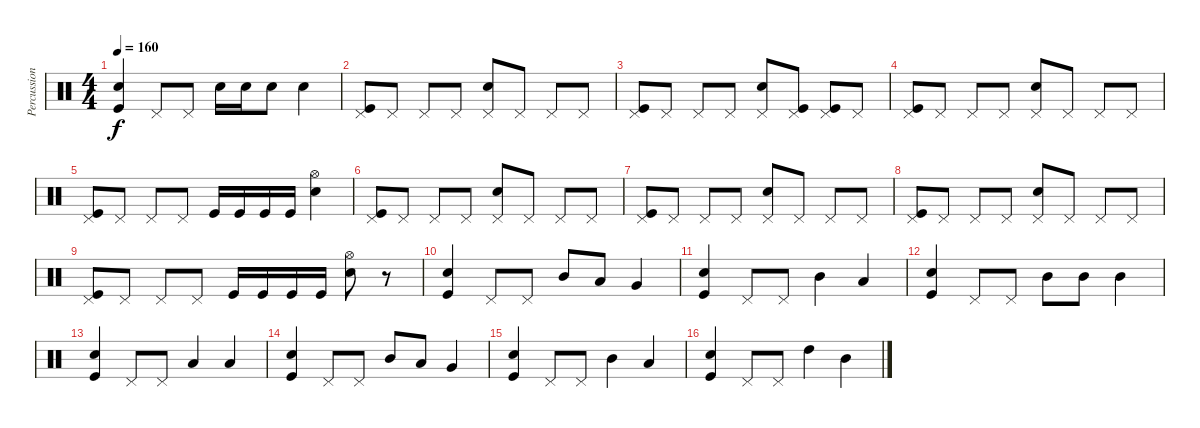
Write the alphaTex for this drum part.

\track ("Percussion" "Percussion") {instrument percussion}
\staff {score}
\articulation defaults
\ts (4 4)
\tempo 160
\clef neutral
\ks c
("Electric Snare (hit)" "Kick (hit)").4{dy f} "Pedal Hi-Hat (hit)".8 "Pedal Hi-Hat (hit)".8 "Electric Snare (hit)".16 "Electric Snare (hit)".16 "Electric Snare (hit)".8 "Electric Snare (hit)".4 |
("Pedal Hi-Hat (hit)" "Kick (hit)").8{volume 9} "Pedal Hi-Hat (hit)".8 "Pedal Hi-Hat (hit)".8 "Pedal Hi-Hat (hit)".8 ("Pedal Hi-Hat (hit)" "Electric Snare (hit)").8 "Pedal Hi-Hat (hit)".8 "Pedal Hi-Hat (hit)".8 "Pedal Hi-Hat (hit)".8 |
("Pedal Hi-Hat (hit)" "Kick (hit)").8 "Pedal Hi-Hat (hit)".8 "Pedal Hi-Hat (hit)".8 "Pedal Hi-Hat (hit)".8 ("Pedal Hi-Hat (hit)" "Electric Snare (hit)").8 ("Pedal Hi-Hat (hit)" "Kick (hit)").8 ("Pedal Hi-Hat (hit)" "Kick (hit)").8 "Pedal Hi-Hat (hit)".8 |
("Pedal Hi-Hat (hit)" "Kick (hit)").8 "Pedal Hi-Hat (hit)".8 "Pedal Hi-Hat (hit)".8 "Pedal Hi-Hat (hit)".8 ("Pedal Hi-Hat (hit)" "Electric Snare (hit)").8 "Pedal Hi-Hat (hit)".8 "Pedal Hi-Hat (hit)".8 "Pedal Hi-Hat (hit)".8 |
("Pedal Hi-Hat (hit)" "Kick (hit)").8 "Pedal Hi-Hat (hit)".8 "Pedal Hi-Hat (hit)".8 "Pedal Hi-Hat (hit)".8 "Kick (hit)".16 "Kick (hit)".16 "Kick (hit)".16 "Kick (hit)".16 ("Hi-Hat (open)" "Electric Snare (hit)").4 |
("Pedal Hi-Hat (hit)" "Kick (hit)").8{volume 7} "Pedal Hi-Hat (hit)".8 "Pedal Hi-Hat (hit)".8 "Pedal Hi-Hat (hit)".8 ("Pedal Hi-Hat (hit)" "Electric Snare (hit)").8 "Pedal Hi-Hat (hit)".8 "Pedal Hi-Hat (hit)".8 "Pedal Hi-Hat (hit)".8 |
("Pedal Hi-Hat (hit)" "Kick (hit)").8 "Pedal Hi-Hat (hit)".8 "Pedal Hi-Hat (hit)".8 "Pedal Hi-Hat (hit)".8 ("Pedal Hi-Hat (hit)" "Electric Snare (hit)").8 "Pedal Hi-Hat (hit)".8 "Pedal Hi-Hat (hit)".8 "Pedal Hi-Hat (hit)".8 |
("Pedal Hi-Hat (hit)" "Kick (hit)").8 "Pedal Hi-Hat (hit)".8 "Pedal Hi-Hat (hit)".8 "Pedal Hi-Hat (hit)".8 ("Pedal Hi-Hat (hit)" "Electric Snare (hit)").8 "Pedal Hi-Hat (hit)".8 "Pedal Hi-Hat (hit)".8 "Pedal Hi-Hat (hit)".8 |
("Pedal Hi-Hat (hit)" "Kick (hit)").8 "Pedal Hi-Hat (hit)".8 "Pedal Hi-Hat (hit)".8 "Pedal Hi-Hat (hit)".8 "Kick (hit)".16 "Kick (hit)".16 "Kick (hit)".16 "Kick (hit)".16 ("Hi-Hat (open)" "Electric Snare (hit)").8 r.8 |
("Electric Snare (hit)" "Kick (hit)").4{volume 5} "Pedal Hi-Hat (hit)".8 "Pedal Hi-Hat (hit)".8 "Mid Tom (hit)".8 "Low Tom (hit)".8 "Very Low Tom (hit)".4 |
("Electric Snare (hit)" "Kick (hit)").4 "Pedal Hi-Hat (hit)".8 "Pedal Hi-Hat (hit)".8 "Mid Tom (hit)".4 "Low Tom (hit)".4 |
("Electric Snare (hit)" "Kick (hit)").4 "Pedal Hi-Hat (hit)".8 "Pedal Hi-Hat (hit)".8 "Mid Tom (hit)".8 "Mid Tom (hit)".8 "Mid Tom (hit)".4 |
("Electric Snare (hit)" "Kick (hit)").4 "Pedal Hi-Hat (hit)".8 "Pedal Hi-Hat (hit)".8 "Low Tom (hit)".4 "Low Tom (hit)".4 |
("Electric Snare (hit)" "Kick (hit)").4{volume 3} "Pedal Hi-Hat (hit)".8 "Pedal Hi-Hat (hit)".8 "Mid Tom (hit)".8 "Low Tom (hit)".8 "Very Low Tom (hit)".4 |
("Electric Snare (hit)" "Kick (hit)").4 "Pedal Hi-Hat (hit)".8 "Pedal Hi-Hat (hit)".8 "Mid Tom (hit)".4 "Low Tom (hit)".4 |
("Electric Snare (hit)" "Kick (hit)").4 "Pedal Hi-Hat (hit)".8 "Pedal Hi-Hat (hit)".8 "High Tom (hit)".4 "Mid Tom (hit)".4
